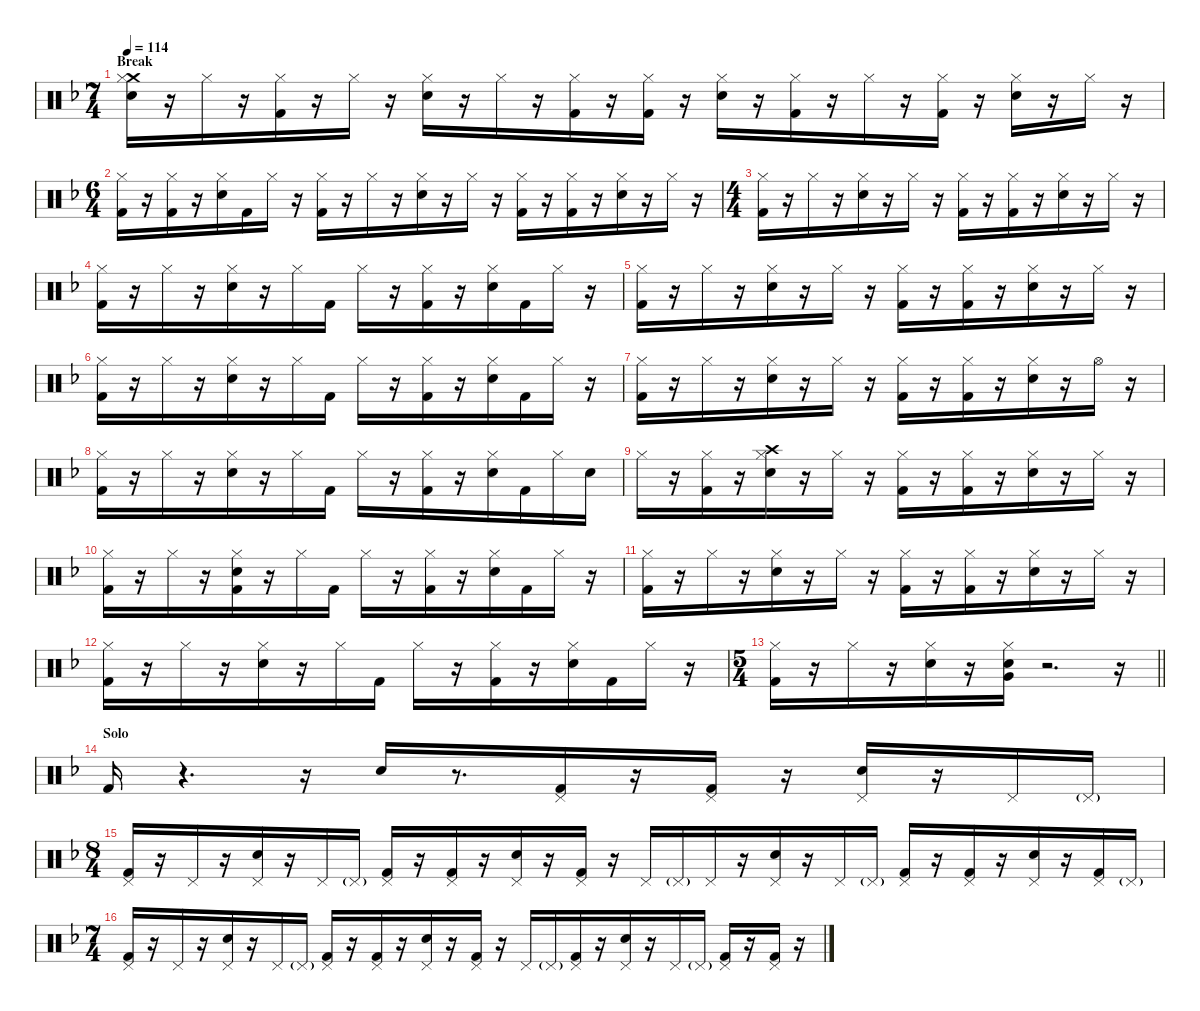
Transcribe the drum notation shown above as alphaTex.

\defaultSystemsLayout 4
\hideDynamics
\bracketExtendMode nobrackets
\singleTrackTrackNamePolicy hidden
\multiTrackTrackNamePolicy hidden
\firstSystemTrackNameMode fullname
\otherSystemsTrackNameOrientation horizontal
\track ("Drums" "drm.") {instrument percussion}
\staff {score}
\articulation defaults
\ts (7 4)
\beaming (8 4 4 4 4)
\section ("" "Break")
\tempo 114
\clef neutral
\ks dminor
("Crash medium (hit)"{acc forcenatural} "Hi-Hat (closed)"{acc forcenatural} "Snare (hit) 2"{acc forcenatural}).16{dy f beam Down} r.16{beam Down} "Hi-Hat (closed)"{acc forcenatural}.16{beam Down} r.16{beam Down} ("Hi-Hat (closed)"{acc forcenatural} "Kick (hit) 2"{acc forcenatural}).16{beam Down} r.16{beam Down} "Hi-Hat (closed)"{acc forcenatural}.16{beam Down} r.16{beam Down} ("Hi-Hat (closed)"{acc forcenatural} "Snare (hit) 2"{acc forcenatural}).16{beam Down} r.16{beam Down} "Hi-Hat (closed)"{acc forcenatural}.16{beam Down} r.16{beam Down} ("Hi-Hat (closed)"{acc forcenatural} "Kick (hit) 2"{acc forcenatural}).16{beam Down} r.16{beam Down} ("Hi-Hat (closed)"{acc forcenatural} "Kick (hit) 2"{acc forcenatural}).16{beam Down} r.16{beam Down} ("Hi-Hat (closed)"{acc forcenatural} "Snare (hit) 2"{acc forcenatural}).16{beam Down} r.16{beam Down} ("Hi-Hat (closed)"{acc forcenatural} "Kick (hit) 2"{acc forcenatural}).16{beam Down} r.16{beam Down} "Hi-Hat (closed)"{acc forcenatural}.16{beam Down} r.16{beam Down} ("Hi-Hat (closed)"{acc forcenatural} "Kick (hit) 2"{acc forcenatural}).16{beam Down} r.16{beam Down} ("Hi-Hat (closed)"{acc forcenatural} "Snare (hit) 2"{acc forcenatural}).16{beam Down} r.16{beam Down} "Hi-Hat (closed)"{acc forcenatural}.16{beam Down} r.16{beam Down} |
\ts (6 4)
\beaming (8 4 4 4 4)
("Hi-Hat (closed)"{acc forcenatural} "Kick (hit) 2"{acc forcenatural}).16{beam Down} r.16{beam Down} ("Hi-Hat (closed)"{acc forcenatural} "Kick (hit) 2"{acc forcenatural}).16{beam Down} r.16{beam Down} ("Hi-Hat (closed)"{acc forcenatural} "Snare (hit) 2"{acc forcenatural}).16{beam Down} "Kick (hit) 2"{acc forcenatural}.16{beam Down} "Hi-Hat (closed)"{acc forcenatural}.16{beam Down} r.16{beam Down} ("Hi-Hat (closed)"{acc forcenatural} "Kick (hit) 2"{acc forcenatural}).16{beam Down} r.16{beam Down} "Hi-Hat (closed)"{acc forcenatural}.16{beam Down} r.16{beam Down} ("Hi-Hat (closed)"{acc forcenatural} "Snare (hit) 2"{acc forcenatural}).16{beam Down} r.16{beam Down} "Hi-Hat (closed)"{acc forcenatural}.16{beam Down} r.16{beam Down} ("Hi-Hat (closed)"{acc forcenatural} "Kick (hit) 2"{acc forcenatural}).16{beam Down} r.16{beam Down} ("Hi-Hat (closed)"{acc forcenatural} "Kick (hit) 2"{acc forcenatural}).16{beam Down} r.16{beam Down} ("Hi-Hat (closed)"{acc forcenatural} "Snare (hit) 2"{acc forcenatural}).16{beam Down} r.16{beam Down} "Hi-Hat (closed)"{acc forcenatural}.16{beam Down} r.16{beam Down} |
\ts (4 4)
\beaming (8 4 4 4 4)
("Hi-Hat (closed)"{acc forcenatural} "Kick (hit) 2"{acc forcenatural}).16{beam Down} r.16{beam Down} "Hi-Hat (closed)"{acc forcenatural}.16{beam Down} r.16{beam Down} ("Hi-Hat (closed)"{acc forcenatural} "Snare (hit) 2"{acc forcenatural}).16{beam Down} r.16{beam Down} "Hi-Hat (closed)"{acc forcenatural}.16{beam Down} r.16{beam Down} ("Hi-Hat (closed)"{acc forcenatural} "Kick (hit) 2"{acc forcenatural}).16{beam Down} r.16{beam Down} ("Hi-Hat (closed)"{acc forcenatural} "Kick (hit) 2"{acc forcenatural}).16{beam Down} r.16{beam Down} ("Hi-Hat (closed)"{acc forcenatural} "Snare (hit) 2"{acc forcenatural}).16{beam Down} r.16{beam Down} "Hi-Hat (closed)"{acc forcenatural}.16{beam Down} r.16{beam Down} |
("Hi-Hat (closed)"{acc forcenatural} "Kick (hit) 2"{acc forcenatural}).16{beam Down} r.16{beam Down} "Hi-Hat (closed)"{acc forcenatural}.16{beam Down} r.16{beam Down} ("Hi-Hat (closed)"{acc forcenatural} "Snare (hit) 2"{acc forcenatural}).16{beam Down} r.16{beam Down} "Hi-Hat (closed)"{acc forcenatural}.16{beam Down} "Kick (hit) 2"{acc forcenatural}.16{beam Down} "Hi-Hat (closed)"{acc forcenatural}.16{beam Down} r.16{beam Down} ("Hi-Hat (closed)"{acc forcenatural} "Kick (hit) 2"{acc forcenatural}).16{beam Down} r.16{beam Down} ("Hi-Hat (closed)"{acc forcenatural} "Snare (hit) 2"{acc forcenatural}).16{beam Down} "Kick (hit) 2"{acc forcenatural}.16{beam Down} "Hi-Hat (closed)"{acc forcenatural}.16{beam Down} r.16{beam Down} |
("Hi-Hat (closed)"{acc forcenatural} "Kick (hit) 2"{acc forcenatural}).16{beam Down} r.16{beam Down} "Hi-Hat (closed)"{acc forcenatural}.16{beam Down} r.16{beam Down} ("Hi-Hat (closed)"{acc forcenatural} "Snare (hit) 2"{acc forcenatural}).16{beam Down} r.16{beam Down} "Hi-Hat (closed)"{acc forcenatural}.16{beam Down} r.16{beam Down} ("Hi-Hat (closed)"{acc forcenatural} "Kick (hit) 2"{acc forcenatural}).16{beam Down} r.16{beam Down} ("Hi-Hat (closed)"{acc forcenatural} "Kick (hit) 2"{acc forcenatural}).16{beam Down} r.16{beam Down} ("Hi-Hat (closed)"{acc forcenatural} "Snare (hit) 2"{acc forcenatural}).16{beam Down} r.16{beam Down} "Hi-Hat (closed)"{acc forcenatural}.16{beam Down} r.16{beam Down} |
("Hi-Hat (closed)"{acc forcenatural} "Kick (hit) 2"{acc forcenatural}).16{beam Down} r.16{beam Down} "Hi-Hat (closed)"{acc forcenatural}.16{beam Down} r.16{beam Down} ("Hi-Hat (closed)"{acc forcenatural} "Snare (hit) 2"{acc forcenatural}).16{beam Down} r.16{beam Down} "Hi-Hat (closed)"{acc forcenatural}.16{beam Down} "Kick (hit) 2"{acc forcenatural}.16{beam Down} "Hi-Hat (closed)"{acc forcenatural}.16{beam Down} r.16{beam Down} ("Hi-Hat (closed)"{acc forcenatural} "Kick (hit) 2"{acc forcenatural}).16{beam Down} r.16{beam Down} ("Hi-Hat (closed)"{acc forcenatural} "Snare (hit) 2"{acc forcenatural}).16{beam Down} "Kick (hit) 2"{acc forcenatural}.16{beam Down} "Hi-Hat (closed)"{acc forcenatural}.16{beam Down} r.16{beam Down} |
("Hi-Hat (closed)"{acc forcenatural} "Kick (hit) 2"{acc forcenatural}).16{beam Down} r.16{beam Down} "Hi-Hat (closed)"{acc forcenatural}.16{beam Down} r.16{beam Down} ("Hi-Hat (closed)"{acc forcenatural} "Snare (hit) 2"{acc forcenatural}).16{beam Down} r.16{beam Down} "Hi-Hat (closed)"{acc forcenatural}.16{beam Down} r.16{beam Down} ("Hi-Hat (closed)"{acc forcenatural} "Kick (hit) 2"{acc forcenatural}).16{beam Down} r.16{beam Down} ("Hi-Hat (closed)"{acc forcenatural} "Kick (hit) 2"{acc forcenatural}).16{beam Down} r.16{beam Down} ("Hi-Hat (closed)"{acc forcenatural} "Snare (hit) 2"{acc forcenatural}).16{beam Down} r.16{beam Down} "Hi-Hat (open)"{acc forcenatural}.16{beam Down} r.16{beam Down} |
("Hi-Hat (closed)"{acc forcenatural} "Kick (hit) 2"{acc forcenatural}).16{beam Down} r.16{beam Down} "Hi-Hat (closed)"{acc forcenatural}.16{beam Down} r.16{beam Down} ("Hi-Hat (closed)"{acc forcenatural} "Snare (hit) 2"{acc forcenatural}).16{beam Down} r.16{beam Down} "Hi-Hat (closed)"{acc forcenatural}.16{beam Down} "Kick (hit) 2"{acc forcenatural}.16{beam Down} "Hi-Hat (closed)"{acc forcenatural}.16{beam Down} r.16{beam Down} ("Hi-Hat (closed)"{acc forcenatural} "Kick (hit) 2"{acc forcenatural}).16{beam Down} r.16{beam Down} ("Hi-Hat (closed)"{acc forcenatural} "Snare (hit) 2"{acc forcenatural}).16{beam Down} "Kick (hit) 2"{acc forcenatural}.16{beam Down} "Hi-Hat (closed)"{acc forcenatural}.16{beam Down} "Snare (hit) 2"{acc forcenatural}.16{beam Down} |
"Hi-Hat (closed)"{acc forcenatural}.16{beam Down} r.16{beam Down} ("Hi-Hat (closed)"{acc forcenatural} "Kick (hit) 2"{acc forcenatural}).16{beam Down} r.16{beam Down} ("Crash high (hit)"{acc forcenatural} "Hi-Hat (closed)"{acc forcenatural} "Snare (hit) 2"{acc forcenatural}).16{beam Down} r.16{beam Down} "Hi-Hat (closed)"{acc forcenatural}.16{beam Down} r.16{beam Down} ("Hi-Hat (closed)"{acc forcenatural} "Kick (hit) 2"{acc forcenatural}).16{beam Down} r.16{beam Down} ("Hi-Hat (closed)"{acc forcenatural} "Kick (hit) 2"{acc forcenatural}).16{beam Down} r.16{beam Down} ("Hi-Hat (closed)"{acc forcenatural} "Snare (hit) 2"{acc forcenatural}).16{beam Down} r.16{beam Down} "Hi-Hat (closed)"{acc forcenatural}.16{beam Down} r.16{beam Down} |
("Hi-Hat (closed)"{acc forcenatural} "Kick (hit) 2"{acc forcenatural}).16{beam Down} r.16{beam Down} "Hi-Hat (closed)"{acc forcenatural}.16{beam Down} r.16{beam Down} ("Hi-Hat (closed)"{acc forcenatural} "Snare (hit) 2"{acc forcenatural} "Kick (hit) 2"{acc forcenatural}).16{beam Down} r.16{beam Down} "Hi-Hat (closed)"{acc forcenatural}.16{beam Down} "Kick (hit) 2"{acc forcenatural}.16{beam Down} "Hi-Hat (closed)"{acc forcenatural}.16{beam Down} r.16{beam Down} ("Hi-Hat (closed)"{acc forcenatural} "Kick (hit) 2"{acc forcenatural}).16{beam Down} r.16{beam Down} ("Hi-Hat (closed)"{acc forcenatural} "Snare (hit) 2"{acc forcenatural}).16{beam Down} "Kick (hit) 2"{acc forcenatural}.16{beam Down} "Hi-Hat (closed)"{acc forcenatural}.16{beam Down} r.16{beam Down} |
("Hi-Hat (closed)"{acc forcenatural} "Kick (hit) 2"{acc forcenatural}).16{beam Down} r.16{beam Down} "Hi-Hat (closed)"{acc forcenatural}.16{beam Down} r.16{beam Down} ("Hi-Hat (closed)"{acc forcenatural} "Snare (hit) 2"{acc forcenatural}).16{beam Down} r.16{beam Down} "Hi-Hat (closed)"{acc forcenatural}.16{beam Down} r.16{beam Down} ("Hi-Hat (closed)"{acc forcenatural} "Kick (hit) 2"{acc forcenatural}).16{beam Down} r.16{beam Down} ("Hi-Hat (closed)"{acc forcenatural} "Kick (hit) 2"{acc forcenatural}).16{beam Down} r.16{beam Down} ("Hi-Hat (closed)"{acc forcenatural} "Snare (hit) 2"{acc forcenatural}).16{beam Down} r.16{beam Down} "Hi-Hat (closed)"{acc forcenatural}.16{beam Down} r.16{beam Down} |
("Hi-Hat (closed)"{acc forcenatural} "Kick (hit) 2"{acc forcenatural}).16{beam Down} r.16{beam Down} "Hi-Hat (closed)"{acc forcenatural}.16{beam Down} r.16{beam Down} ("Hi-Hat (closed)"{acc forcenatural} "Snare (hit) 2"{acc forcenatural}).16{beam Down} r.16{beam Down} "Hi-Hat (closed)"{acc forcenatural}.16{beam Down} "Kick (hit) 2"{acc forcenatural}.16{beam Down} "Hi-Hat (closed)"{acc forcenatural}.16{beam Down} r.16{beam Down} ("Hi-Hat (closed)"{acc forcenatural} "Kick (hit) 2"{acc forcenatural}).16{beam Down} r.16{beam Down} ("Hi-Hat (closed)"{acc forcenatural} "Snare (hit) 2"{acc forcenatural}).16{beam Down} "Kick (hit) 2"{acc forcenatural}.16{beam Down} "Hi-Hat (closed)"{acc forcenatural}.16{beam Down} r.16{beam Down} |
\ts (5 4)
\beaming (8 4 4 4 4)
\barLineRight lightlight
("Hi-Hat (closed)"{acc forcenatural} "Kick (hit) 2"{acc forcenatural}).16{beam Down} r.16{beam Down} "Hi-Hat (closed)"{acc forcenatural}.16{beam Down} r.16{beam Down} ("Hi-Hat (closed)"{acc forcenatural} "Snare (hit) 2"{acc forcenatural}).16{beam Down} r.16{beam Down} ("Hi-Hat (closed)"{acc forcenatural} "Very Low Tom (hit)"{acc forcenatural} "Snare (hit) 2"{acc forcenatural}).16{beam Down} r.2{d beam Down} r.16{beam Down} |
\section ("" "Solo")
"Kick (hit) 2"{acc forcenatural}.16{beam Up} r.4{d beam Up} r.16{beam Up} "Snare (hit) 2"{acc forcenatural}.16{beam Up} r.8{d beam Up} ("Pedal Hi-Hat (hit)"{acc forcenatural} "Kick (hit) 2"{acc forcenatural}).16{beam Up} r.16{beam Up} ("Pedal Hi-Hat (hit)"{acc forcenatural} "Kick (hit) 2"{acc forcenatural}).16{beam Up} r.16{beam Up} ("Pedal Hi-Hat (hit)"{acc forcenatural} "Snare (hit) 2"{acc forcenatural}).16{beam Up} r.16{beam Up} "Pedal Hi-Hat (hit)"{acc forcenatural}.16{beam Up} "Pedal Hi-Hat (hit)"{g acc forcenatural}.16{dy mf beam Up} |
\ts (8 4)
\beaming (8 4 4 4 4)
("Pedal Hi-Hat (hit)"{acc forcenatural} "Kick (hit) 2"{acc forcenatural}).16{dy f beam Up} r.16{beam Up} "Pedal Hi-Hat (hit)"{acc forcenatural}.16{beam Up} r.16{beam Up} ("Pedal Hi-Hat (hit)"{acc forcenatural} "Snare (hit) 2"{acc forcenatural}).16{beam Up} r.16{beam Up} "Pedal Hi-Hat (hit)"{acc forcenatural}.16{beam Up} "Pedal Hi-Hat (hit)"{g acc forcenatural}.16{dy mf beam Up} ("Pedal Hi-Hat (hit)"{acc forcenatural} "Kick (hit) 2"{acc forcenatural}).16{dy f beam Up} r.16{beam Up} ("Pedal Hi-Hat (hit)"{acc forcenatural} "Kick (hit) 2"{acc forcenatural}).16{beam Up} r.16{beam Up} ("Pedal Hi-Hat (hit)"{acc forcenatural} "Snare (hit) 2"{acc forcenatural}).16{beam Up} r.16{beam Up} ("Pedal Hi-Hat (hit)"{acc forcenatural} "Kick (hit) 2"{acc forcenatural}).16{beam Up} r.16{beam Up} "Pedal Hi-Hat (hit)"{acc forcenatural}.16{beam Up} "Pedal Hi-Hat (hit)"{g acc forcenatural}.16{dy mf beam Up} "Pedal Hi-Hat (hit)"{acc forcenatural}.16{dy f beam Up} r.16{beam Up} ("Pedal Hi-Hat (hit)"{acc forcenatural} "Snare (hit) 2"{acc forcenatural}).16{beam Up} r.16{beam Up} "Pedal Hi-Hat (hit)"{acc forcenatural}.16{beam Up} "Pedal Hi-Hat (hit)"{g acc forcenatural}.16{dy mf beam Up} ("Pedal Hi-Hat (hit)"{acc forcenatural} "Kick (hit) 2"{acc forcenatural}).16{dy f beam Up} r.16{beam Up} ("Pedal Hi-Hat (hit)"{acc forcenatural} "Kick (hit) 2"{acc forcenatural}).16{beam Up} r.16{beam Up} ("Pedal Hi-Hat (hit)"{acc forcenatural} "Snare (hit) 2"{acc forcenatural}).16{beam Up} r.16{beam Up} ("Pedal Hi-Hat (hit)"{acc forcenatural} "Kick (hit) 2"{acc forcenatural}).16{beam Up} "Pedal Hi-Hat (hit)"{g acc forcenatural}.16{dy mf beam Up} |
\ts (7 4)
\beaming (8 4 4 4 4)
("Pedal Hi-Hat (hit)"{acc forcenatural} "Kick (hit) 2"{acc forcenatural}).16{dy f beam Up} r.16{beam Up} "Pedal Hi-Hat (hit)"{acc forcenatural}.16{beam Up} r.16{beam Up} ("Pedal Hi-Hat (hit)"{acc forcenatural} "Snare (hit) 2"{acc forcenatural}).16{beam Up} r.16{beam Up} "Pedal Hi-Hat (hit)"{acc forcenatural}.16{beam Up} "Pedal Hi-Hat (hit)"{g acc forcenatural}.16{dy mf beam Up} ("Pedal Hi-Hat (hit)"{acc forcenatural} "Kick (hit) 2"{acc forcenatural}).16{dy f beam Up} r.16{beam Up} ("Pedal Hi-Hat (hit)"{acc forcenatural} "Kick (hit) 2"{acc forcenatural}).16{beam Up} r.16{beam Up} ("Pedal Hi-Hat (hit)"{acc forcenatural} "Snare (hit) 2"{acc forcenatural}).16{beam Up} r.16{beam Up} ("Pedal Hi-Hat (hit)"{acc forcenatural} "Kick (hit) 2"{acc forcenatural}).16{beam Up} r.16{beam Up} "Pedal Hi-Hat (hit)"{acc forcenatural}.16{beam Up} "Pedal Hi-Hat (hit)"{g acc forcenatural}.16{dy mf beam Up} ("Pedal Hi-Hat (hit)"{acc forcenatural} "Kick (hit) 2"{acc forcenatural}).16{dy f beam Up} r.16{beam Up} ("Pedal Hi-Hat (hit)"{acc forcenatural} "Snare (hit) 2"{acc forcenatural}).16{beam Up} r.16{beam Up} "Pedal Hi-Hat (hit)"{acc forcenatural}.16{beam Up} "Pedal Hi-Hat (hit)"{g acc forcenatural}.16{dy mf beam Up} ("Pedal Hi-Hat (hit)"{acc forcenatural} "Kick (hit) 2"{acc forcenatural}).16{dy f beam Up} r.16{beam Up} ("Pedal Hi-Hat (hit)"{acc forcenatural} "Kick (hit) 2"{acc forcenatural}).16{beam Up} r.16{beam Up}
